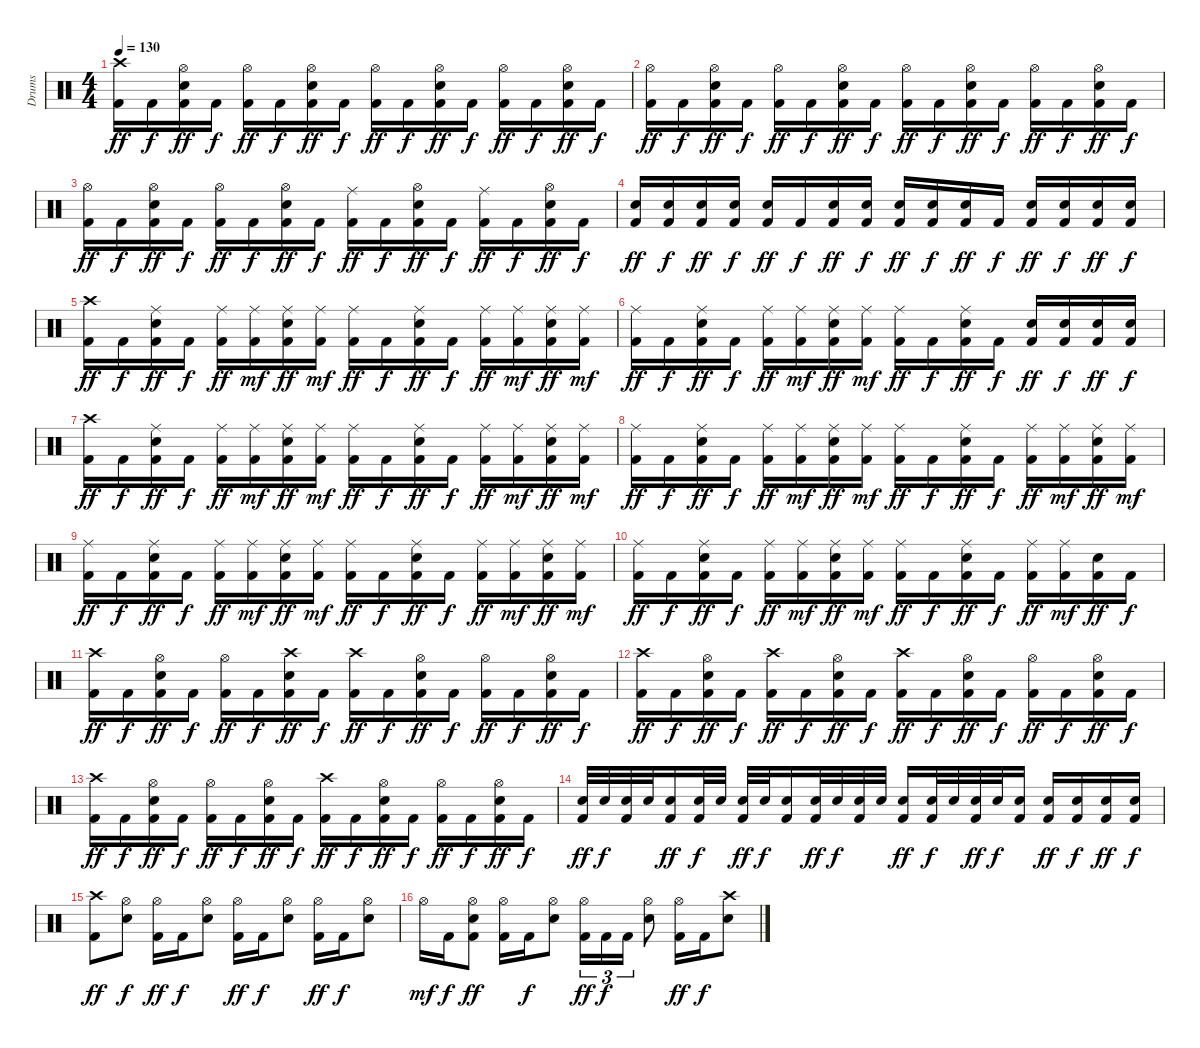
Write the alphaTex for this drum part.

\track ("Drums" "Drums") {instrument percussion}
\staff {score}
\articulation defaults
\ts (4 4)
\tempo 130
\clef neutral
\ks c
("Crash high (hit)" "Kick (hit) 2").16{dy ff} "Kick (hit) 2".16{dy f} ("Hi-Hat (open)" "Electric Snare (hit)" "Kick (hit) 2").16{dy ff} "Kick (hit) 2".16{dy f} ("Hi-Hat (open)" "Kick (hit) 2").16{dy ff} "Kick (hit) 2".16{dy f} ("Hi-Hat (open)" "Electric Snare (hit)" "Kick (hit) 2").16{dy ff} "Kick (hit) 2".16{dy f} ("Hi-Hat (open)" "Kick (hit) 2").16{dy ff} "Kick (hit) 2".16{dy f} ("Hi-Hat (open)" "Electric Snare (hit)" "Kick (hit) 2").16{dy ff} "Kick (hit) 2".16{dy f} ("Hi-Hat (open)" "Kick (hit) 2").16{dy ff} "Kick (hit) 2".16{dy f} ("Hi-Hat (open)" "Electric Snare (hit)" "Kick (hit) 2").16{dy ff} "Kick (hit) 2".16{dy f} |
("Hi-Hat (open)" "Kick (hit) 2").16{dy ff} "Kick (hit) 2".16{dy f} ("Hi-Hat (open)" "Electric Snare (hit)" "Kick (hit) 2").16{dy ff} "Kick (hit) 2".16{dy f} ("Hi-Hat (open)" "Kick (hit) 2").16{dy ff} "Kick (hit) 2".16{dy f} ("Hi-Hat (open)" "Electric Snare (hit)" "Kick (hit) 2").16{dy ff} "Kick (hit) 2".16{dy f} ("Hi-Hat (open)" "Kick (hit) 2").16{dy ff} "Kick (hit) 2".16{dy f} ("Hi-Hat (open)" "Electric Snare (hit)" "Kick (hit) 2").16{dy ff} "Kick (hit) 2".16{dy f} ("Hi-Hat (open)" "Kick (hit) 2").16{dy ff} "Kick (hit) 2".16{dy f} ("Hi-Hat (open)" "Electric Snare (hit)" "Kick (hit) 2").16{dy ff} "Kick (hit) 2".16{dy f} |
("Hi-Hat (open)" "Kick (hit) 2").16{dy ff} "Kick (hit) 2".16{dy f} ("Hi-Hat (open)" "Electric Snare (hit)" "Kick (hit) 2").16{dy ff} "Kick (hit) 2".16{dy f} ("Hi-Hat (open)" "Kick (hit) 2").16{dy ff} "Kick (hit) 2".16{dy f} ("Hi-Hat (open)" "Electric Snare (hit)" "Kick (hit) 2").16{dy ff} "Kick (hit) 2".16{dy f} ("Ride (middle)" "Kick (hit) 2").16{dy ff} "Kick (hit) 2".16{dy f} ("Hi-Hat (open)" "Electric Snare (hit)" "Kick (hit) 2").16{dy ff} "Kick (hit) 2".16{dy f} ("Ride (middle)" "Kick (hit) 2").16{dy ff} "Kick (hit) 2".16{dy f} ("Hi-Hat (open)" "Electric Snare (hit)" "Kick (hit) 2").16{dy ff} "Kick (hit) 2".16{dy f} |
("Electric Snare (hit)" "Kick (hit) 2").16{dy ff} ("Electric Snare (hit)" "Kick (hit) 2").16{dy f} ("Electric Snare (hit)" "Kick (hit) 2").16{dy ff} ("Electric Snare (hit)" "Kick (hit) 2").16{dy f} ("Electric Snare (hit)" "Kick (hit) 2").16{dy ff} "Kick (hit) 2".16{dy f} ("Electric Snare (hit)" "Kick (hit) 2").16{dy ff} ("Electric Snare (hit)" "Kick (hit) 2").16{dy f} ("Electric Snare (hit)" "Kick (hit) 2").16{dy ff} ("Electric Snare (hit)" "Kick (hit) 2").16{dy f} ("Electric Snare (hit)" "Kick (hit) 2").16{dy ff} "Kick (hit) 2".16{dy f} ("Electric Snare (hit)" "Kick (hit) 2").16{dy ff} ("Electric Snare (hit)" "Kick (hit) 2").16{dy f} ("Electric Snare (hit)" "Kick (hit) 2").16{dy ff} ("Electric Snare (hit)" "Kick (hit) 2").16{dy f} |
("Crash high (hit)" "Kick (hit) 2").16{dy ff} "Kick (hit) 2".16{dy f} ("Ride (middle)" "Electric Snare (hit)" "Kick (hit) 2").16{dy ff} "Kick (hit) 2".16{dy f} ("Ride (middle)" "Kick (hit) 2").16{dy ff} ("Ride (middle)" "Kick (hit) 2").16{dy mf} ("Ride (middle)" "Electric Snare (hit)" "Kick (hit) 2").16{dy ff} ("Ride (middle)" "Kick (hit) 2").16{dy mf} ("Ride (middle)" "Kick (hit) 2").16{dy ff} "Kick (hit) 2".16{dy f} ("Ride (middle)" "Electric Snare (hit)" "Kick (hit) 2").16{dy ff} "Kick (hit) 2".16{dy f} ("Ride (middle)" "Kick (hit) 2").16{dy ff} ("Ride (middle)" "Kick (hit) 2").16{dy mf} ("Ride (middle)" "Electric Snare (hit)" "Kick (hit) 2").16{dy ff} ("Ride (middle)" "Kick (hit) 2").16{dy mf} |
("Ride (middle)" "Kick (hit) 2").16{dy ff} "Kick (hit) 2".16{dy f} ("Ride (middle)" "Electric Snare (hit)" "Kick (hit) 2").16{dy ff} "Kick (hit) 2".16{dy f} ("Ride (middle)" "Kick (hit) 2").16{dy ff} ("Ride (middle)" "Kick (hit) 2").16{dy mf} ("Ride (middle)" "Electric Snare (hit)" "Kick (hit) 2").16{dy ff} ("Ride (middle)" "Kick (hit) 2").16{dy mf} ("Ride (middle)" "Kick (hit) 2").16{dy ff} "Kick (hit) 2".16{dy f} ("Ride (middle)" "Electric Snare (hit)" "Kick (hit) 2").16{dy ff} "Kick (hit) 2".16{dy f} ("Electric Snare (hit)" "Kick (hit) 2").16{dy ff} ("Electric Snare (hit)" "Kick (hit) 2").16{dy f} ("Electric Snare (hit)" "Kick (hit) 2").16{dy ff} ("Electric Snare (hit)" "Kick (hit) 2").16{dy f} |
("Crash high (hit)" "Kick (hit) 2").16{dy ff} "Kick (hit) 2".16{dy f} ("Ride (middle)" "Electric Snare (hit)" "Kick (hit) 2").16{dy ff} "Kick (hit) 2".16{dy f} ("Ride (middle)" "Kick (hit) 2").16{dy ff} ("Ride (middle)" "Kick (hit) 2").16{dy mf} ("Ride (middle)" "Electric Snare (hit)" "Kick (hit) 2").16{dy ff} ("Ride (middle)" "Kick (hit) 2").16{dy mf} ("Ride (middle)" "Kick (hit) 2").16{dy ff} "Kick (hit) 2".16{dy f} ("Ride (middle)" "Electric Snare (hit)" "Kick (hit) 2").16{dy ff} "Kick (hit) 2".16{dy f} ("Ride (middle)" "Kick (hit) 2").16{dy ff} ("Ride (middle)" "Kick (hit) 2").16{dy mf} ("Ride (middle)" "Electric Snare (hit)" "Kick (hit) 2").16{dy ff} ("Ride (middle)" "Kick (hit) 2").16{dy mf} |
("Ride (middle)" "Kick (hit) 2").16{dy ff} "Kick (hit) 2".16{dy f} ("Ride (middle)" "Electric Snare (hit)" "Kick (hit) 2").16{dy ff} "Kick (hit) 2".16{dy f} ("Ride (middle)" "Kick (hit) 2").16{dy ff} ("Ride (middle)" "Kick (hit) 2").16{dy mf} ("Ride (middle)" "Electric Snare (hit)" "Kick (hit) 2").16{dy ff} ("Ride (middle)" "Kick (hit) 2").16{dy mf} ("Ride (middle)" "Kick (hit) 2").16{dy ff} "Kick (hit) 2".16{dy f} ("Ride (middle)" "Electric Snare (hit)" "Kick (hit) 2").16{dy ff} "Kick (hit) 2".16{dy f} ("Ride (middle)" "Kick (hit) 2").16{dy ff} ("Ride (middle)" "Kick (hit) 2").16{dy mf} ("Ride (middle)" "Electric Snare (hit)" "Kick (hit) 2").16{dy ff} ("Ride (middle)" "Kick (hit) 2").16{dy mf} |
("Ride (middle)" "Kick (hit) 2").16{dy ff} "Kick (hit) 2".16{dy f} ("Ride (middle)" "Electric Snare (hit)" "Kick (hit) 2").16{dy ff} "Kick (hit) 2".16{dy f} ("Ride (middle)" "Kick (hit) 2").16{dy ff} ("Ride (middle)" "Kick (hit) 2").16{dy mf} ("Ride (middle)" "Electric Snare (hit)" "Kick (hit) 2").16{dy ff} ("Ride (middle)" "Kick (hit) 2").16{dy mf} ("Ride (middle)" "Kick (hit) 2").16{dy ff} "Kick (hit) 2".16{dy f} ("Ride (middle)" "Electric Snare (hit)" "Kick (hit) 2").16{dy ff} "Kick (hit) 2".16{dy f} ("Ride (middle)" "Kick (hit) 2").16{dy ff} ("Ride (middle)" "Kick (hit) 2").16{dy mf} ("Ride (middle)" "Electric Snare (hit)" "Kick (hit) 2").16{dy ff} ("Ride (middle)" "Kick (hit) 2").16{dy mf} |
("Ride (middle)" "Kick (hit) 2").16{dy ff} "Kick (hit) 2".16{dy f} ("Ride (middle)" "Electric Snare (hit)" "Kick (hit) 2").16{dy ff} "Kick (hit) 2".16{dy f} ("Ride (middle)" "Kick (hit) 2").16{dy ff} ("Ride (middle)" "Kick (hit) 2").16{dy mf} ("Ride (middle)" "Electric Snare (hit)" "Kick (hit) 2").16{dy ff} ("Ride (middle)" "Kick (hit) 2").16{dy mf} ("Ride (middle)" "Kick (hit) 2").16{dy ff} "Kick (hit) 2".16{dy f} ("Ride (middle)" "Electric Snare (hit)" "Kick (hit) 2").16{dy ff} "Kick (hit) 2".16{dy f} ("Ride (middle)" "Kick (hit) 2").16{dy ff} ("Ride (middle)" "Kick (hit) 2").16{dy mf} ("Electric Snare (hit)" "Kick (hit) 2").16{dy ff} "Kick (hit) 2".16{dy f} |
("Crash high (hit)" "Kick (hit) 2").16{dy ff} "Kick (hit) 2".16{dy f} ("Hi-Hat (open)" "Electric Snare (hit)" "Kick (hit) 2").16{dy ff} "Kick (hit) 2".16{dy f} ("Hi-Hat (open)" "Kick (hit) 2").16{dy ff} "Kick (hit) 2".16{dy f} ("Crash high (hit)" "Electric Snare (hit)" "Kick (hit) 2").16{dy ff} "Kick (hit) 2".16{dy f} ("Crash high (hit)" "Kick (hit) 2").16{dy ff} "Kick (hit) 2".16{dy f} ("Hi-Hat (open)" "Electric Snare (hit)" "Kick (hit) 2").16{dy ff} "Kick (hit) 2".16{dy f} ("Hi-Hat (open)" "Kick (hit) 2").16{dy ff} "Kick (hit) 2".16{dy f} ("Hi-Hat (open)" "Electric Snare (hit)" "Kick (hit) 2").16{dy ff} "Kick (hit) 2".16{dy f} |
("Crash high (hit)" "Kick (hit) 2").16{dy ff} "Kick (hit) 2".16{dy f} ("Hi-Hat (open)" "Electric Snare (hit)" "Kick (hit) 2").16{dy ff} "Kick (hit) 2".16{dy f} ("Crash high (hit)" "Kick (hit) 2").16{dy ff} "Kick (hit) 2".16{dy f} ("Hi-Hat (open)" "Electric Snare (hit)" "Kick (hit) 2").16{dy ff} "Kick (hit) 2".16{dy f} ("Crash high (hit)" "Kick (hit) 2").16{dy ff} "Kick (hit) 2".16{dy f} ("Hi-Hat (open)" "Electric Snare (hit)" "Kick (hit) 2").16{dy ff} "Kick (hit) 2".16{dy f} ("Hi-Hat (open)" "Kick (hit) 2").16{dy ff} "Kick (hit) 2".16{dy f} ("Hi-Hat (open)" "Electric Snare (hit)" "Kick (hit) 2").16{dy ff} "Kick (hit) 2".16{dy f} |
("Crash high (hit)" "Kick (hit) 2").16{dy ff} "Kick (hit) 2".16{dy f} ("Hi-Hat (open)" "Electric Snare (hit)" "Kick (hit) 2").16{dy ff} "Kick (hit) 2".16{dy f} ("Hi-Hat (open)" "Kick (hit) 2").16{dy ff} "Kick (hit) 2".16{dy f} ("Hi-Hat (open)" "Electric Snare (hit)" "Kick (hit) 2").16{dy ff} "Kick (hit) 2".16{dy f} ("Crash high (hit)" "Kick (hit) 2").16{dy ff} "Kick (hit) 2".16{dy f} ("Hi-Hat (open)" "Electric Snare (hit)" "Kick (hit) 2").16{dy ff} "Kick (hit) 2".16{dy f} ("Hi-Hat (open)" "Kick (hit) 2").16{dy ff} "Kick (hit) 2".16{dy f} ("Hi-Hat (open)" "Electric Snare (hit)" "Kick (hit) 2").16{dy ff} "Kick (hit) 2".16{dy f} |
("Electric Snare (hit)" "Kick (hit) 2").32{dy ff} "Electric Snare (hit)".32{dy f} ("Electric Snare (hit)" "Kick (hit) 2").32 "Electric Snare (hit)".32 ("Electric Snare (hit)" "Kick (hit) 2").16{dy ff} ("Electric Snare (hit)" "Kick (hit) 2").32{dy f} "Electric Snare (hit)".32 ("Electric Snare (hit)" "Kick (hit) 2").32{dy ff} "Electric Snare (hit)".32{dy f} ("Electric Snare (hit)" "Kick (hit) 2").16 ("Electric Snare (hit)" "Kick (hit) 2").32{dy ff} "Electric Snare (hit)".32{dy f} ("Electric Snare (hit)" "Kick (hit) 2").32 "Electric Snare (hit)".32 ("Electric Snare (hit)" "Kick (hit) 2").16{dy ff} ("Electric Snare (hit)" "Kick (hit) 2").32{dy f} "Electric Snare (hit)".32 ("Electric Snare (hit)" "Kick (hit) 2").32{dy ff} "Electric Snare (hit)".32{dy f} ("Electric Snare (hit)" "Kick (hit) 2").16 ("Electric Snare (hit)" "Kick (hit) 2").16{dy ff} ("Electric Snare (hit)" "Kick (hit) 2").16{dy f} ("Electric Snare (hit)" "Kick (hit) 2").16{dy ff} ("Electric Snare (hit)" "Kick (hit) 2").16{dy f} |
("Crash high (hit)" "Kick (hit) 2").8{dy ff} ("Hi-Hat (open)" "Electric Snare (hit)").8{dy f} ("Hi-Hat (open)" "Kick (hit) 2").16{dy ff} "Kick (hit) 2".16{dy f} ("Hi-Hat (open)" "Electric Snare (hit)").8 ("Hi-Hat (open)" "Kick (hit) 2").16{dy ff} "Kick (hit) 2".16{dy f} ("Hi-Hat (open)" "Electric Snare (hit)").8 ("Hi-Hat (open)" "Kick (hit) 2").16{dy ff} "Kick (hit) 2".16{dy f} ("Hi-Hat (open)" "Electric Snare (hit)").8 |
"Hi-Hat (open)".16{dy mf} "Kick (hit) 2".16{dy f} ("Hi-Hat (open)" "Electric Snare (hit)" "Kick (hit) 2").8{dy ff} ("Hi-Hat (open)" "Kick (hit) 2").16 "Kick (hit) 2".16{dy f} ("Hi-Hat (open)" "Electric Snare (hit)").8 ("Hi-Hat (open)" "Kick (hit) 2").16{tu (3 2) dy ff} "Kick (hit) 2".16{tu (3 2) dy f} "Kick (hit) 2".16{tu (3 2)} ("Hi-Hat (open)" "Electric Snare (hit)").8 ("Hi-Hat (open)" "Kick (hit) 2").16{dy ff} "Kick (hit) 2".16{dy f} ("Crash high (hit)" "Electric Snare (hit)").8
